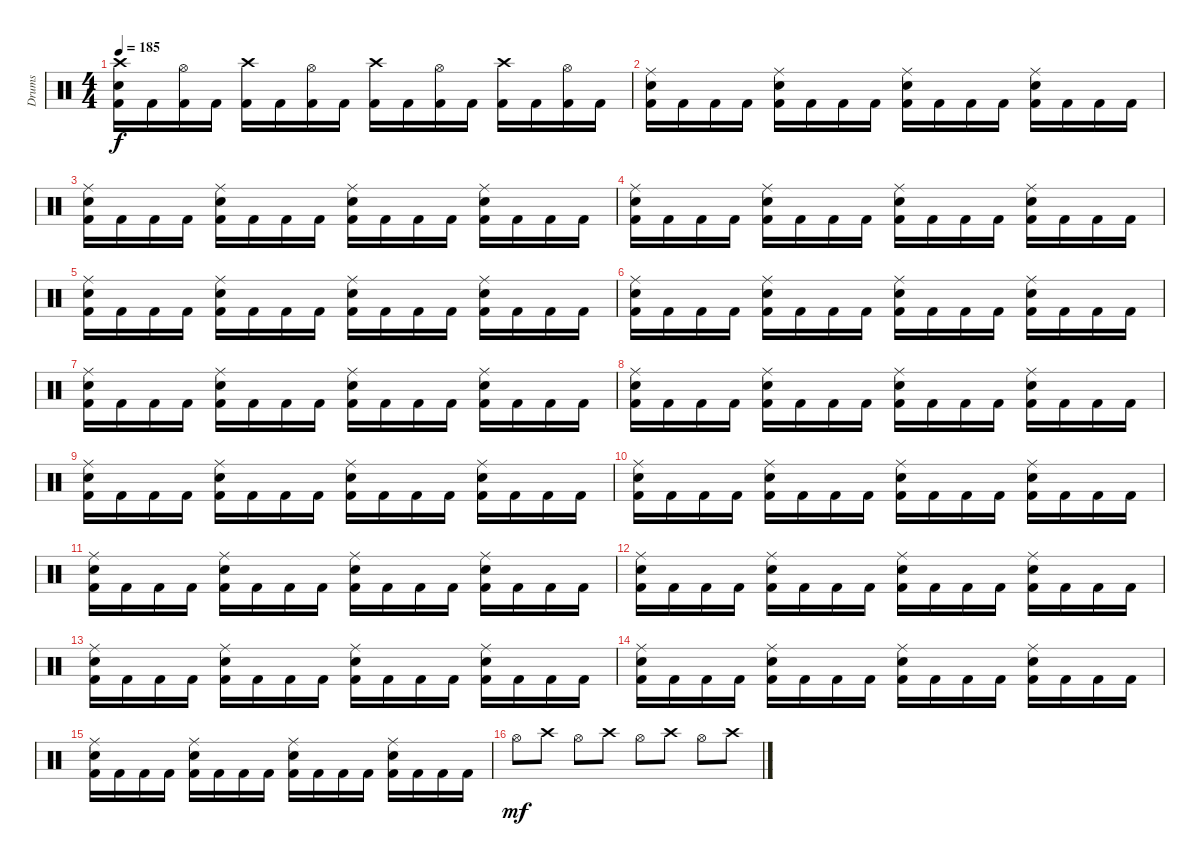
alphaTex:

\track ("Drums" "Drums") {instrument percussion}
\staff {score}
\articulation defaults
\ts (4 4)
\tempo 185
\clef neutral
\ks c
("Crash high (hit)" "Electric Snare (hit)" "Kick (hit) 2").16{dy f} "Kick (hit) 2".16 ("Hi-Hat (open)" "Kick (hit) 2").16 "Kick (hit) 2".16 ("Crash high (hit)" "Kick (hit) 2").16 "Kick (hit) 2".16 ("Hi-Hat (open)" "Kick (hit) 2").16 "Kick (hit) 2".16 ("Crash high (hit)" "Kick (hit) 2").16 "Kick (hit) 2".16 ("Hi-Hat (open)" "Kick (hit) 2").16 "Kick (hit) 2".16 ("Crash high (hit)" "Kick (hit) 2").16 "Kick (hit) 2".16 ("Hi-Hat (open)" "Kick (hit) 2").16 "Kick (hit) 2".16 |
("Ride (middle)" "Electric Snare (hit)" "Kick (hit) 2").16 "Kick (hit) 2".16 "Kick (hit) 2".16 "Kick (hit) 2".16 ("Ride (middle)" "Electric Snare (hit)" "Kick (hit) 2").16 "Kick (hit) 2".16 "Kick (hit) 2".16 "Kick (hit) 2".16 ("Ride (middle)" "Electric Snare (hit)" "Kick (hit) 2").16 "Kick (hit) 2".16 "Kick (hit) 2".16 "Kick (hit) 2".16 ("Ride (middle)" "Electric Snare (hit)" "Kick (hit) 2").16 "Kick (hit) 2".16 "Kick (hit) 2".16 "Kick (hit) 2".16 |
("Ride (middle)" "Electric Snare (hit)" "Kick (hit) 2").16 "Kick (hit) 2".16 "Kick (hit) 2".16 "Kick (hit) 2".16 ("Ride (middle)" "Electric Snare (hit)" "Kick (hit) 2").16 "Kick (hit) 2".16 "Kick (hit) 2".16 "Kick (hit) 2".16 ("Ride (middle)" "Electric Snare (hit)" "Kick (hit) 2").16 "Kick (hit) 2".16 "Kick (hit) 2".16 "Kick (hit) 2".16 ("Ride (middle)" "Electric Snare (hit)" "Kick (hit) 2").16 "Kick (hit) 2".16 "Kick (hit) 2".16 "Kick (hit) 2".16 |
("Ride (middle)" "Electric Snare (hit)" "Kick (hit) 2").16 "Kick (hit) 2".16 "Kick (hit) 2".16 "Kick (hit) 2".16 ("Ride (middle)" "Electric Snare (hit)" "Kick (hit) 2").16 "Kick (hit) 2".16 "Kick (hit) 2".16 "Kick (hit) 2".16 ("Ride (middle)" "Electric Snare (hit)" "Kick (hit) 2").16 "Kick (hit) 2".16 "Kick (hit) 2".16 "Kick (hit) 2".16 ("Ride (middle)" "Electric Snare (hit)" "Kick (hit) 2").16 "Kick (hit) 2".16 "Kick (hit) 2".16 "Kick (hit) 2".16 |
("Ride (middle)" "Electric Snare (hit)" "Kick (hit) 2").16 "Kick (hit) 2".16 "Kick (hit) 2".16 "Kick (hit) 2".16 ("Ride (middle)" "Electric Snare (hit)" "Kick (hit) 2").16 "Kick (hit) 2".16 "Kick (hit) 2".16 "Kick (hit) 2".16 ("Ride (middle)" "Electric Snare (hit)" "Kick (hit) 2").16 "Kick (hit) 2".16 "Kick (hit) 2".16 "Kick (hit) 2".16 ("Ride (middle)" "Electric Snare (hit)" "Kick (hit) 2").16 "Kick (hit) 2".16 "Kick (hit) 2".16 "Kick (hit) 2".16 |
("Ride (middle)" "Electric Snare (hit)" "Kick (hit) 2").16 "Kick (hit) 2".16 "Kick (hit) 2".16 "Kick (hit) 2".16 ("Ride (middle)" "Electric Snare (hit)" "Kick (hit) 2").16 "Kick (hit) 2".16 "Kick (hit) 2".16 "Kick (hit) 2".16 ("Ride (middle)" "Electric Snare (hit)" "Kick (hit) 2").16 "Kick (hit) 2".16 "Kick (hit) 2".16 "Kick (hit) 2".16 ("Ride (middle)" "Electric Snare (hit)" "Kick (hit) 2").16 "Kick (hit) 2".16 "Kick (hit) 2".16 "Kick (hit) 2".16 |
("Ride (middle)" "Electric Snare (hit)" "Kick (hit) 2").16 "Kick (hit) 2".16 "Kick (hit) 2".16 "Kick (hit) 2".16 ("Ride (middle)" "Electric Snare (hit)" "Kick (hit) 2").16 "Kick (hit) 2".16 "Kick (hit) 2".16 "Kick (hit) 2".16 ("Ride (middle)" "Electric Snare (hit)" "Kick (hit) 2").16 "Kick (hit) 2".16 "Kick (hit) 2".16 "Kick (hit) 2".16 ("Ride (middle)" "Electric Snare (hit)" "Kick (hit) 2").16 "Kick (hit) 2".16 "Kick (hit) 2".16 "Kick (hit) 2".16 |
("Ride (middle)" "Electric Snare (hit)" "Kick (hit) 2").16 "Kick (hit) 2".16 "Kick (hit) 2".16 "Kick (hit) 2".16 ("Ride (middle)" "Electric Snare (hit)" "Kick (hit) 2").16 "Kick (hit) 2".16 "Kick (hit) 2".16 "Kick (hit) 2".16 ("Ride (middle)" "Electric Snare (hit)" "Kick (hit) 2").16 "Kick (hit) 2".16 "Kick (hit) 2".16 "Kick (hit) 2".16 ("Ride (middle)" "Electric Snare (hit)" "Kick (hit) 2").16 "Kick (hit) 2".16 "Kick (hit) 2".16 "Kick (hit) 2".16 |
("Ride (middle)" "Electric Snare (hit)" "Kick (hit) 2").16 "Kick (hit) 2".16 "Kick (hit) 2".16 "Kick (hit) 2".16 ("Ride (middle)" "Electric Snare (hit)" "Kick (hit) 2").16 "Kick (hit) 2".16 "Kick (hit) 2".16 "Kick (hit) 2".16 ("Ride (middle)" "Electric Snare (hit)" "Kick (hit) 2").16 "Kick (hit) 2".16 "Kick (hit) 2".16 "Kick (hit) 2".16 ("Ride (middle)" "Electric Snare (hit)" "Kick (hit) 2").16 "Kick (hit) 2".16 "Kick (hit) 2".16 "Kick (hit) 2".16 |
("Ride (middle)" "Electric Snare (hit)" "Kick (hit) 2").16 "Kick (hit) 2".16 "Kick (hit) 2".16 "Kick (hit) 2".16 ("Ride (middle)" "Electric Snare (hit)" "Kick (hit) 2").16 "Kick (hit) 2".16 "Kick (hit) 2".16 "Kick (hit) 2".16 ("Ride (middle)" "Electric Snare (hit)" "Kick (hit) 2").16 "Kick (hit) 2".16 "Kick (hit) 2".16 "Kick (hit) 2".16 ("Ride (middle)" "Electric Snare (hit)" "Kick (hit) 2").16 "Kick (hit) 2".16 "Kick (hit) 2".16 "Kick (hit) 2".16 |
("Ride (middle)" "Electric Snare (hit)" "Kick (hit) 2").16 "Kick (hit) 2".16 "Kick (hit) 2".16 "Kick (hit) 2".16 ("Ride (middle)" "Electric Snare (hit)" "Kick (hit) 2").16 "Kick (hit) 2".16 "Kick (hit) 2".16 "Kick (hit) 2".16 ("Ride (middle)" "Electric Snare (hit)" "Kick (hit) 2").16 "Kick (hit) 2".16 "Kick (hit) 2".16 "Kick (hit) 2".16 ("Ride (middle)" "Electric Snare (hit)" "Kick (hit) 2").16 "Kick (hit) 2".16 "Kick (hit) 2".16 "Kick (hit) 2".16 |
("Ride (middle)" "Electric Snare (hit)" "Kick (hit) 2").16 "Kick (hit) 2".16 "Kick (hit) 2".16 "Kick (hit) 2".16 ("Ride (middle)" "Electric Snare (hit)" "Kick (hit) 2").16 "Kick (hit) 2".16 "Kick (hit) 2".16 "Kick (hit) 2".16 ("Ride (middle)" "Electric Snare (hit)" "Kick (hit) 2").16 "Kick (hit) 2".16 "Kick (hit) 2".16 "Kick (hit) 2".16 ("Ride (middle)" "Electric Snare (hit)" "Kick (hit) 2").16 "Kick (hit) 2".16 "Kick (hit) 2".16 "Kick (hit) 2".16 |
("Ride (middle)" "Electric Snare (hit)" "Kick (hit) 2").16 "Kick (hit) 2".16 "Kick (hit) 2".16 "Kick (hit) 2".16 ("Ride (middle)" "Electric Snare (hit)" "Kick (hit) 2").16 "Kick (hit) 2".16 "Kick (hit) 2".16 "Kick (hit) 2".16 ("Ride (middle)" "Electric Snare (hit)" "Kick (hit) 2").16 "Kick (hit) 2".16 "Kick (hit) 2".16 "Kick (hit) 2".16 ("Ride (middle)" "Electric Snare (hit)" "Kick (hit) 2").16 "Kick (hit) 2".16 "Kick (hit) 2".16 "Kick (hit) 2".16 |
("Ride (middle)" "Electric Snare (hit)" "Kick (hit) 2").16 "Kick (hit) 2".16 "Kick (hit) 2".16 "Kick (hit) 2".16 ("Ride (middle)" "Electric Snare (hit)" "Kick (hit) 2").16 "Kick (hit) 2".16 "Kick (hit) 2".16 "Kick (hit) 2".16 ("Ride (middle)" "Electric Snare (hit)" "Kick (hit) 2").16 "Kick (hit) 2".16 "Kick (hit) 2".16 "Kick (hit) 2".16 ("Ride (middle)" "Electric Snare (hit)" "Kick (hit) 2").16 "Kick (hit) 2".16 "Kick (hit) 2".16 "Kick (hit) 2".16 |
("Ride (middle)" "Electric Snare (hit)" "Kick (hit) 2").16 "Kick (hit) 2".16 "Kick (hit) 2".16 "Kick (hit) 2".16 ("Ride (middle)" "Electric Snare (hit)" "Kick (hit) 2").16 "Kick (hit) 2".16 "Kick (hit) 2".16 "Kick (hit) 2".16 ("Ride (middle)" "Electric Snare (hit)" "Kick (hit) 2").16 "Kick (hit) 2".16 "Kick (hit) 2".16 "Kick (hit) 2".16 ("Ride (middle)" "Electric Snare (hit)" "Kick (hit) 2").16 "Kick (hit) 2".16 "Kick (hit) 2".16 "Kick (hit) 2".16 |
"Hi-Hat (open)".8{dy mf} "Crash high (hit)".8 "Hi-Hat (open)".8 "Crash high (hit)".8 "Hi-Hat (open)".8 "Crash high (hit)".8 "Hi-Hat (open)".8 "Crash high (hit)".8
